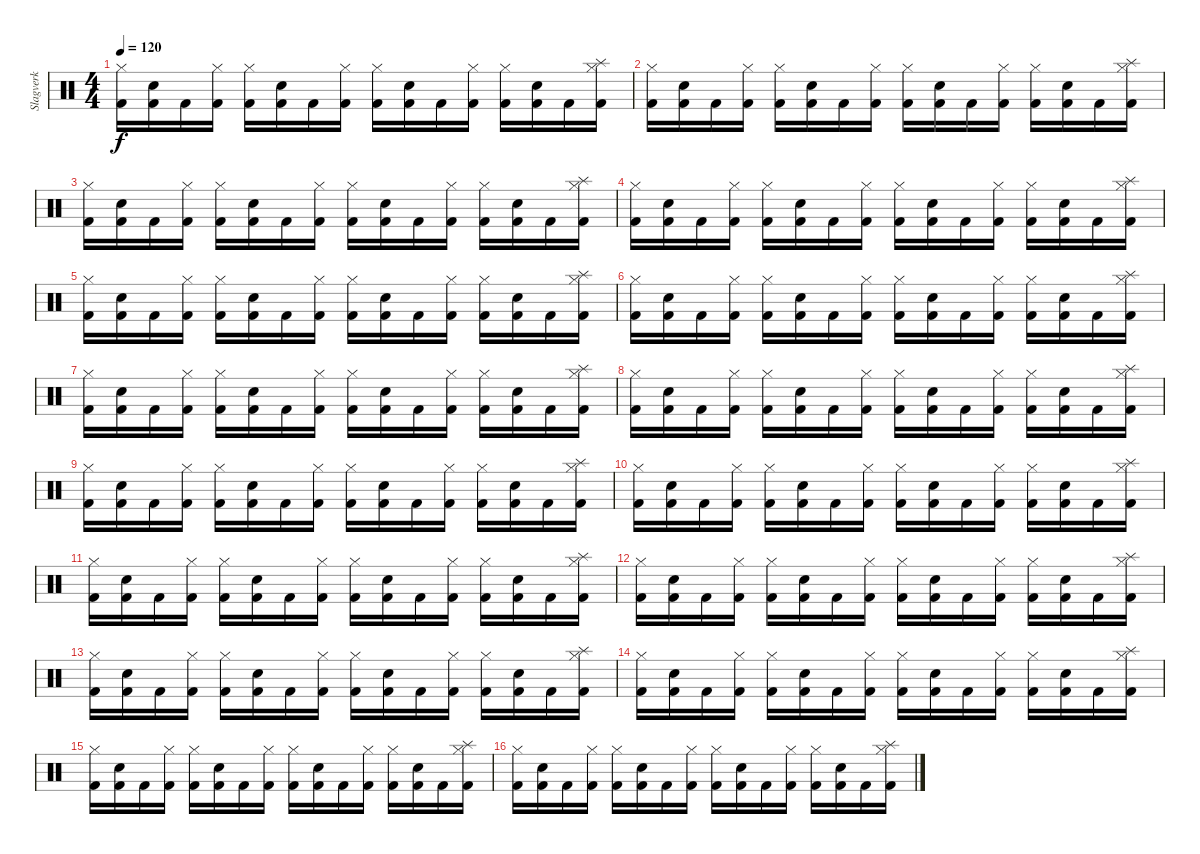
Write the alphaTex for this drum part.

\track ("Slagverk" "Slagverk") {instrument percussion}
\staff {score}
\articulation defaults
\ts (4 4)
\tempo 120
\clef neutral
\ks c
("Kick (hit) 2" "Hi-Hat (closed)").16{dy f} ("Kick (hit) 2" "Electric Snare (hit)").16 "Kick (hit) 2".16 ("Kick (hit) 2" "Hi-Hat (closed)").16 ("Kick (hit) 2" "Hi-Hat (closed)").16 ("Kick (hit) 2" "Electric Snare (hit)").16 "Kick (hit) 2".16 ("Kick (hit) 2" "Hi-Hat (closed)").16 ("Kick (hit) 2" "Hi-Hat (closed)").16 ("Kick (hit) 2" "Electric Snare (hit)").16 "Kick (hit) 2".16 ("Kick (hit) 2" "Hi-Hat (closed)").16 ("Kick (hit) 2" "Hi-Hat (closed)").16 ("Kick (hit) 2" "Electric Snare (hit)").16 "Kick (hit) 2".16 ("Kick (hit) 2" "Hi-Hat (closed)" "Splash (hit)").16 |
("Kick (hit) 2" "Hi-Hat (closed)").16 ("Kick (hit) 2" "Electric Snare (hit)").16 "Kick (hit) 2".16 ("Kick (hit) 2" "Hi-Hat (closed)").16 ("Kick (hit) 2" "Hi-Hat (closed)").16 ("Kick (hit) 2" "Electric Snare (hit)").16 "Kick (hit) 2".16 ("Kick (hit) 2" "Hi-Hat (closed)").16 ("Kick (hit) 2" "Hi-Hat (closed)").16 ("Kick (hit) 2" "Electric Snare (hit)").16 "Kick (hit) 2".16 ("Kick (hit) 2" "Hi-Hat (closed)").16 ("Kick (hit) 2" "Hi-Hat (closed)").16 ("Kick (hit) 2" "Electric Snare (hit)").16 "Kick (hit) 2".16 ("Kick (hit) 2" "Hi-Hat (closed)" "Splash (hit)").16 |
("Kick (hit) 2" "Hi-Hat (closed)").16 ("Kick (hit) 2" "Electric Snare (hit)").16 "Kick (hit) 2".16 ("Kick (hit) 2" "Hi-Hat (closed)").16 ("Kick (hit) 2" "Hi-Hat (closed)").16 ("Kick (hit) 2" "Electric Snare (hit)").16 "Kick (hit) 2".16 ("Kick (hit) 2" "Hi-Hat (closed)").16 ("Kick (hit) 2" "Hi-Hat (closed)").16 ("Kick (hit) 2" "Electric Snare (hit)").16 "Kick (hit) 2".16 ("Kick (hit) 2" "Hi-Hat (closed)").16 ("Kick (hit) 2" "Hi-Hat (closed)").16 ("Kick (hit) 2" "Electric Snare (hit)").16 "Kick (hit) 2".16 ("Kick (hit) 2" "Hi-Hat (closed)" "Splash (hit)").16 |
("Kick (hit) 2" "Hi-Hat (closed)").16 ("Kick (hit) 2" "Electric Snare (hit)").16 "Kick (hit) 2".16 ("Kick (hit) 2" "Hi-Hat (closed)").16 ("Kick (hit) 2" "Hi-Hat (closed)").16 ("Kick (hit) 2" "Electric Snare (hit)").16 "Kick (hit) 2".16 ("Kick (hit) 2" "Hi-Hat (closed)").16 ("Kick (hit) 2" "Hi-Hat (closed)").16 ("Kick (hit) 2" "Electric Snare (hit)").16 "Kick (hit) 2".16 ("Kick (hit) 2" "Hi-Hat (closed)").16 ("Kick (hit) 2" "Hi-Hat (closed)").16 ("Kick (hit) 2" "Electric Snare (hit)").16 "Kick (hit) 2".16 ("Kick (hit) 2" "Hi-Hat (closed)" "Splash (hit)").16 |
("Kick (hit) 2" "Hi-Hat (closed)").16 ("Kick (hit) 2" "Electric Snare (hit)").16 "Kick (hit) 2".16 ("Kick (hit) 2" "Hi-Hat (closed)").16 ("Kick (hit) 2" "Hi-Hat (closed)").16 ("Kick (hit) 2" "Electric Snare (hit)").16 "Kick (hit) 2".16 ("Kick (hit) 2" "Hi-Hat (closed)").16 ("Kick (hit) 2" "Hi-Hat (closed)").16 ("Kick (hit) 2" "Electric Snare (hit)").16 "Kick (hit) 2".16 ("Kick (hit) 2" "Hi-Hat (closed)").16 ("Kick (hit) 2" "Hi-Hat (closed)").16 ("Kick (hit) 2" "Electric Snare (hit)").16 "Kick (hit) 2".16 ("Kick (hit) 2" "Hi-Hat (closed)" "Splash (hit)").16 |
("Kick (hit) 2" "Hi-Hat (closed)").16 ("Kick (hit) 2" "Electric Snare (hit)").16 "Kick (hit) 2".16 ("Kick (hit) 2" "Hi-Hat (closed)").16 ("Kick (hit) 2" "Hi-Hat (closed)").16 ("Kick (hit) 2" "Electric Snare (hit)").16 "Kick (hit) 2".16 ("Kick (hit) 2" "Hi-Hat (closed)").16 ("Kick (hit) 2" "Hi-Hat (closed)").16 ("Kick (hit) 2" "Electric Snare (hit)").16 "Kick (hit) 2".16 ("Kick (hit) 2" "Hi-Hat (closed)").16 ("Kick (hit) 2" "Hi-Hat (closed)").16 ("Kick (hit) 2" "Electric Snare (hit)").16 "Kick (hit) 2".16 ("Kick (hit) 2" "Hi-Hat (closed)" "Splash (hit)").16 |
("Kick (hit) 2" "Hi-Hat (closed)").16 ("Kick (hit) 2" "Electric Snare (hit)").16 "Kick (hit) 2".16 ("Kick (hit) 2" "Hi-Hat (closed)").16 ("Kick (hit) 2" "Hi-Hat (closed)").16 ("Kick (hit) 2" "Electric Snare (hit)").16 "Kick (hit) 2".16 ("Kick (hit) 2" "Hi-Hat (closed)").16 ("Kick (hit) 2" "Hi-Hat (closed)").16 ("Kick (hit) 2" "Electric Snare (hit)").16 "Kick (hit) 2".16 ("Kick (hit) 2" "Hi-Hat (closed)").16 ("Kick (hit) 2" "Hi-Hat (closed)").16 ("Kick (hit) 2" "Electric Snare (hit)").16 "Kick (hit) 2".16 ("Kick (hit) 2" "Hi-Hat (closed)" "Splash (hit)").16 |
("Kick (hit) 2" "Hi-Hat (closed)").16 ("Kick (hit) 2" "Electric Snare (hit)").16 "Kick (hit) 2".16 ("Kick (hit) 2" "Hi-Hat (closed)").16 ("Kick (hit) 2" "Hi-Hat (closed)").16 ("Kick (hit) 2" "Electric Snare (hit)").16 "Kick (hit) 2".16 ("Kick (hit) 2" "Hi-Hat (closed)").16 ("Kick (hit) 2" "Hi-Hat (closed)").16 ("Kick (hit) 2" "Electric Snare (hit)").16 "Kick (hit) 2".16 ("Kick (hit) 2" "Hi-Hat (closed)").16 ("Kick (hit) 2" "Hi-Hat (closed)").16 ("Kick (hit) 2" "Electric Snare (hit)").16 "Kick (hit) 2".16 ("Kick (hit) 2" "Hi-Hat (closed)" "Splash (hit)").16 |
("Kick (hit) 2" "Hi-Hat (closed)").16 ("Kick (hit) 2" "Electric Snare (hit)").16 "Kick (hit) 2".16 ("Kick (hit) 2" "Hi-Hat (closed)").16 ("Kick (hit) 2" "Hi-Hat (closed)").16 ("Kick (hit) 2" "Electric Snare (hit)").16 "Kick (hit) 2".16 ("Kick (hit) 2" "Hi-Hat (closed)").16 ("Kick (hit) 2" "Hi-Hat (closed)").16 ("Kick (hit) 2" "Electric Snare (hit)").16 "Kick (hit) 2".16 ("Kick (hit) 2" "Hi-Hat (closed)").16 ("Kick (hit) 2" "Hi-Hat (closed)").16 ("Kick (hit) 2" "Electric Snare (hit)").16 "Kick (hit) 2".16 ("Kick (hit) 2" "Hi-Hat (closed)" "Splash (hit)").16 |
("Kick (hit) 2" "Hi-Hat (closed)").16 ("Kick (hit) 2" "Electric Snare (hit)").16 "Kick (hit) 2".16 ("Kick (hit) 2" "Hi-Hat (closed)").16 ("Kick (hit) 2" "Hi-Hat (closed)").16 ("Kick (hit) 2" "Electric Snare (hit)").16 "Kick (hit) 2".16 ("Kick (hit) 2" "Hi-Hat (closed)").16 ("Kick (hit) 2" "Hi-Hat (closed)").16 ("Kick (hit) 2" "Electric Snare (hit)").16 "Kick (hit) 2".16 ("Kick (hit) 2" "Hi-Hat (closed)").16 ("Kick (hit) 2" "Hi-Hat (closed)").16 ("Kick (hit) 2" "Electric Snare (hit)").16 "Kick (hit) 2".16 ("Kick (hit) 2" "Hi-Hat (closed)" "Splash (hit)").16 |
("Kick (hit) 2" "Hi-Hat (closed)").16 ("Kick (hit) 2" "Electric Snare (hit)").16 "Kick (hit) 2".16 ("Kick (hit) 2" "Hi-Hat (closed)").16 ("Kick (hit) 2" "Hi-Hat (closed)").16 ("Kick (hit) 2" "Electric Snare (hit)").16 "Kick (hit) 2".16 ("Kick (hit) 2" "Hi-Hat (closed)").16 ("Kick (hit) 2" "Hi-Hat (closed)").16 ("Kick (hit) 2" "Electric Snare (hit)").16 "Kick (hit) 2".16 ("Kick (hit) 2" "Hi-Hat (closed)").16 ("Kick (hit) 2" "Hi-Hat (closed)").16 ("Kick (hit) 2" "Electric Snare (hit)").16 "Kick (hit) 2".16 ("Kick (hit) 2" "Hi-Hat (closed)" "Splash (hit)").16 |
("Kick (hit) 2" "Hi-Hat (closed)").16 ("Kick (hit) 2" "Electric Snare (hit)").16 "Kick (hit) 2".16 ("Kick (hit) 2" "Hi-Hat (closed)").16 ("Kick (hit) 2" "Hi-Hat (closed)").16 ("Kick (hit) 2" "Electric Snare (hit)").16 "Kick (hit) 2".16 ("Kick (hit) 2" "Hi-Hat (closed)").16 ("Kick (hit) 2" "Hi-Hat (closed)").16 ("Kick (hit) 2" "Electric Snare (hit)").16 "Kick (hit) 2".16 ("Kick (hit) 2" "Hi-Hat (closed)").16 ("Kick (hit) 2" "Hi-Hat (closed)").16 ("Kick (hit) 2" "Electric Snare (hit)").16 "Kick (hit) 2".16 ("Kick (hit) 2" "Hi-Hat (closed)" "Splash (hit)").16 |
("Kick (hit) 2" "Hi-Hat (closed)").16 ("Kick (hit) 2" "Electric Snare (hit)").16 "Kick (hit) 2".16 ("Kick (hit) 2" "Hi-Hat (closed)").16 ("Kick (hit) 2" "Hi-Hat (closed)").16 ("Kick (hit) 2" "Electric Snare (hit)").16 "Kick (hit) 2".16 ("Kick (hit) 2" "Hi-Hat (closed)").16 ("Kick (hit) 2" "Hi-Hat (closed)").16 ("Kick (hit) 2" "Electric Snare (hit)").16 "Kick (hit) 2".16 ("Kick (hit) 2" "Hi-Hat (closed)").16 ("Kick (hit) 2" "Hi-Hat (closed)").16 ("Kick (hit) 2" "Electric Snare (hit)").16 "Kick (hit) 2".16 ("Kick (hit) 2" "Hi-Hat (closed)" "Splash (hit)").16 |
("Kick (hit) 2" "Hi-Hat (closed)").16 ("Kick (hit) 2" "Electric Snare (hit)").16 "Kick (hit) 2".16 ("Kick (hit) 2" "Hi-Hat (closed)").16 ("Kick (hit) 2" "Hi-Hat (closed)").16 ("Kick (hit) 2" "Electric Snare (hit)").16 "Kick (hit) 2".16 ("Kick (hit) 2" "Hi-Hat (closed)").16 ("Kick (hit) 2" "Hi-Hat (closed)").16 ("Kick (hit) 2" "Electric Snare (hit)").16 "Kick (hit) 2".16 ("Kick (hit) 2" "Hi-Hat (closed)").16 ("Kick (hit) 2" "Hi-Hat (closed)").16 ("Kick (hit) 2" "Electric Snare (hit)").16 "Kick (hit) 2".16 ("Kick (hit) 2" "Hi-Hat (closed)" "Splash (hit)").16 |
("Kick (hit) 2" "Hi-Hat (closed)").16 ("Kick (hit) 2" "Electric Snare (hit)").16 "Kick (hit) 2".16 ("Kick (hit) 2" "Hi-Hat (closed)").16 ("Kick (hit) 2" "Hi-Hat (closed)").16 ("Kick (hit) 2" "Electric Snare (hit)").16 "Kick (hit) 2".16 ("Kick (hit) 2" "Hi-Hat (closed)").16 ("Kick (hit) 2" "Hi-Hat (closed)").16 ("Kick (hit) 2" "Electric Snare (hit)").16 "Kick (hit) 2".16 ("Kick (hit) 2" "Hi-Hat (closed)").16 ("Kick (hit) 2" "Hi-Hat (closed)").16 ("Kick (hit) 2" "Electric Snare (hit)").16 "Kick (hit) 2".16 ("Kick (hit) 2" "Hi-Hat (closed)" "Splash (hit)").16 |
("Kick (hit) 2" "Hi-Hat (closed)").16 ("Kick (hit) 2" "Electric Snare (hit)").16 "Kick (hit) 2".16 ("Kick (hit) 2" "Hi-Hat (closed)").16 ("Kick (hit) 2" "Hi-Hat (closed)").16 ("Kick (hit) 2" "Electric Snare (hit)").16 "Kick (hit) 2".16 ("Kick (hit) 2" "Hi-Hat (closed)").16 ("Kick (hit) 2" "Hi-Hat (closed)").16 ("Kick (hit) 2" "Electric Snare (hit)").16 "Kick (hit) 2".16 ("Kick (hit) 2" "Hi-Hat (closed)").16 ("Kick (hit) 2" "Hi-Hat (closed)").16 ("Kick (hit) 2" "Electric Snare (hit)").16 "Kick (hit) 2".16 ("Kick (hit) 2" "Hi-Hat (closed)" "Splash (hit)").16
